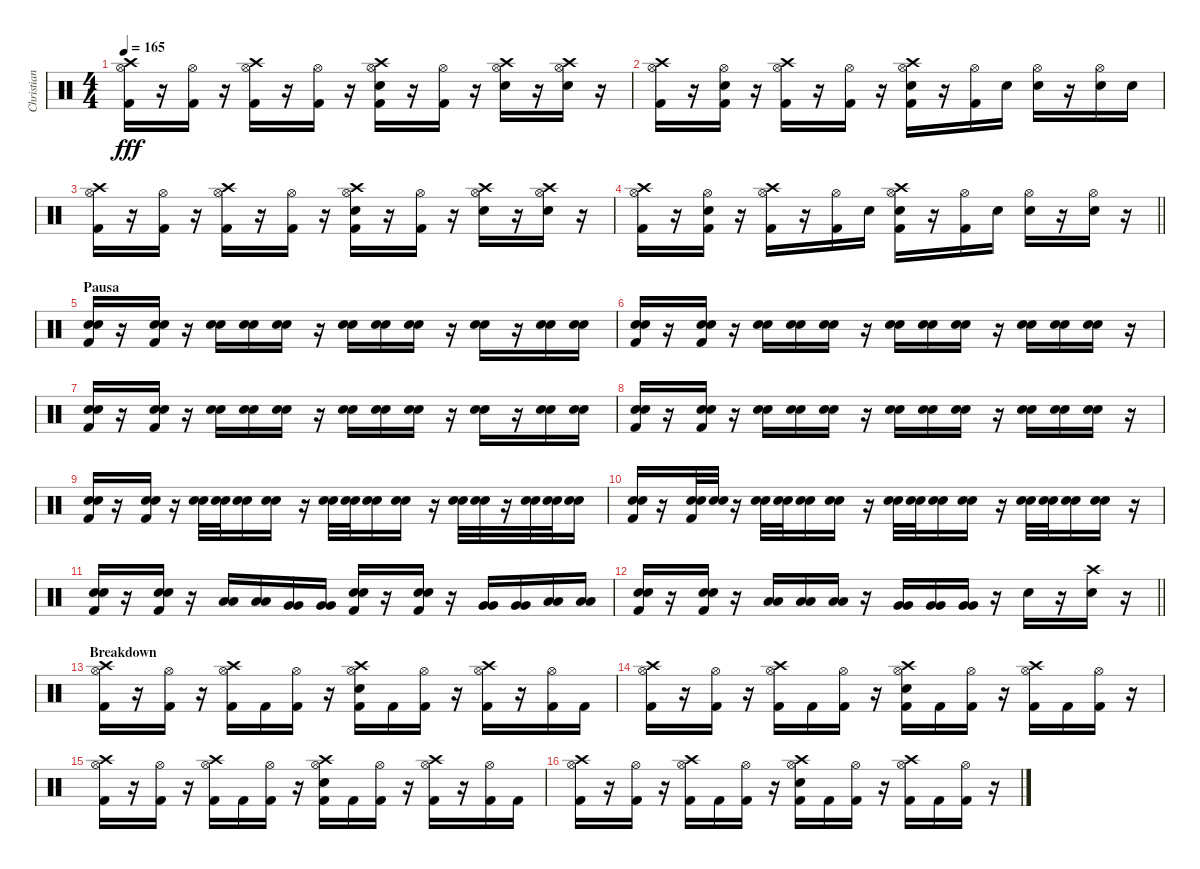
\track ("Christian Coma Mora (CC)" "Christian ") {instrument percussion}
\staff {score}
\articulation defaults
\ts (4 4)
\tempo 165
\clef neutral
\ks c
("Crash high (hit)" "Hi-Hat (open)" "Kick (hit) 2").16{dy fff} r.16 ("Hi-Hat (open)" "Kick (hit) 2").16 r.16 ("Crash high (hit)" "Hi-Hat (open)" "Kick (hit) 2").16 r.16 ("Hi-Hat (open)" "Kick (hit) 2").16 r.16 ("Crash high (hit)" "Hi-Hat (open)" "Snare (hit) 2" "Kick (hit) 2").16 r.16 ("Hi-Hat (open)" "Kick (hit) 2").16 r.16 ("Crash high (hit)" "Hi-Hat (open)" "Snare (hit) 2").16 r.16 ("Crash high (hit)" "Hi-Hat (open)" "Snare (hit) 2").16 r.16 |
("Crash high (hit)" "Hi-Hat (open)" "Kick (hit) 2").16 r.16 ("Hi-Hat (open)" "Snare (hit) 2" "Kick (hit) 2").16 r.16 ("Crash high (hit)" "Hi-Hat (open)" "Kick (hit) 2").16 r.16 ("Hi-Hat (open)" "Kick (hit) 2").16 r.16 ("Crash high (hit)" "Hi-Hat (open)" "Snare (hit) 2" "Kick (hit) 2").16 r.16 ("Hi-Hat (open)" "Kick (hit) 2").16 "Snare (hit) 2".16 ("Hi-Hat (open)" "Snare (hit) 2").16 r.16 ("Hi-Hat (open)" "Snare (hit) 2").16 "Snare (hit) 2".16 |
("Crash high (hit)" "Hi-Hat (open)" "Kick (hit) 2").16 r.16 ("Hi-Hat (open)" "Kick (hit) 2").16 r.16 ("Crash high (hit)" "Hi-Hat (open)" "Kick (hit) 2").16 r.16 ("Hi-Hat (open)" "Kick (hit) 2").16 r.16 ("Crash high (hit)" "Hi-Hat (open)" "Snare (hit) 2" "Kick (hit) 2").16 r.16 ("Hi-Hat (open)" "Kick (hit) 2").16 r.16 ("Crash high (hit)" "Hi-Hat (open)" "Snare (hit) 2").16 r.16 ("Crash high (hit)" "Hi-Hat (open)" "Snare (hit) 2").16 r.16 |
\barLineRight lightlight
("Crash high (hit)" "Hi-Hat (open)" "Kick (hit) 2").16 r.16 ("Hi-Hat (open)" "Snare (hit) 2" "Kick (hit) 2").16 r.16 ("Crash high (hit)" "Hi-Hat (open)" "Kick (hit) 2").16 r.16 ("Hi-Hat (open)" "Kick (hit) 2").16 "Snare (hit) 2".16 ("Crash high (hit)" "Hi-Hat (open)" "Snare (hit) 2" "Kick (hit) 2").16 r.16 ("Hi-Hat (open)" "Kick (hit) 2").16 "Snare (hit) 2".16 ("Hi-Hat (open)" "Snare (hit) 2").16 r.16 ("Hi-Hat (open)" "Snare (hit) 2").16 r.16 |
\section ("" "Pausa")
("Snare (hit) 2" "Electric Snare (hit)" "Kick (hit) 2").16 r.16 ("Snare (hit) 2" "Electric Snare (hit)" "Kick (hit) 2").16 r.16 ("Snare (hit) 2" "Electric Snare (hit)").16 ("Snare (hit) 2" "Electric Snare (hit)").16 ("Snare (hit) 2" "Electric Snare (hit)").16 r.16 ("Snare (hit) 2" "Electric Snare (hit)").16 ("Snare (hit) 2" "Electric Snare (hit)").16 ("Snare (hit) 2" "Electric Snare (hit)").16 r.16 ("Snare (hit) 2" "Electric Snare (hit)").16 r.16 ("Snare (hit) 2" "Electric Snare (hit)").16 ("Snare (hit) 2" "Electric Snare (hit)").16 |
("Snare (hit) 2" "Electric Snare (hit)" "Kick (hit) 2").16 r.16 ("Snare (hit) 2" "Electric Snare (hit)" "Kick (hit) 2").16 r.16 ("Snare (hit) 2" "Electric Snare (hit)").16 ("Snare (hit) 2" "Electric Snare (hit)").16 ("Snare (hit) 2" "Electric Snare (hit)").16 r.16 ("Snare (hit) 2" "Electric Snare (hit)").16 ("Snare (hit) 2" "Electric Snare (hit)").16 ("Snare (hit) 2" "Electric Snare (hit)").16 r.16 ("Snare (hit) 2" "Electric Snare (hit)").16 ("Snare (hit) 2" "Electric Snare (hit)").16 ("Snare (hit) 2" "Electric Snare (hit)").16 r.16 |
("Snare (hit) 2" "Electric Snare (hit)" "Kick (hit) 2").16 r.16 ("Snare (hit) 2" "Electric Snare (hit)" "Kick (hit) 2").16 r.16 ("Snare (hit) 2" "Electric Snare (hit)").16 ("Snare (hit) 2" "Electric Snare (hit)").16 ("Snare (hit) 2" "Electric Snare (hit)").16 r.16 ("Snare (hit) 2" "Electric Snare (hit)").16 ("Snare (hit) 2" "Electric Snare (hit)").16 ("Snare (hit) 2" "Electric Snare (hit)").16 r.16 ("Snare (hit) 2" "Electric Snare (hit)").16 r.16 ("Snare (hit) 2" "Electric Snare (hit)").16 ("Snare (hit) 2" "Electric Snare (hit)").16 |
("Snare (hit) 2" "Electric Snare (hit)" "Kick (hit) 2").16 r.16 ("Snare (hit) 2" "Electric Snare (hit)" "Kick (hit) 2").16 r.16 ("Snare (hit) 2" "Electric Snare (hit)").16 ("Snare (hit) 2" "Electric Snare (hit)").16 ("Snare (hit) 2" "Electric Snare (hit)").16 r.16 ("Snare (hit) 2" "Electric Snare (hit)").16 ("Snare (hit) 2" "Electric Snare (hit)").16 ("Snare (hit) 2" "Electric Snare (hit)").16 r.16 ("Snare (hit) 2" "Electric Snare (hit)").16 ("Snare (hit) 2" "Electric Snare (hit)").16 ("Snare (hit) 2" "Electric Snare (hit)").16 r.16 |
("Snare (hit) 2" "Electric Snare (hit)" "Kick (hit) 2").16 r.16 ("Snare (hit) 2" "Electric Snare (hit)" "Kick (hit) 2").16 r.16 ("Snare (hit) 2" "Electric Snare (hit)").32 ("Snare (hit) 2" "Electric Snare (hit)").32 ("Snare (hit) 2" "Electric Snare (hit)").16 ("Snare (hit) 2" "Electric Snare (hit)").16 r.16 ("Snare (hit) 2" "Electric Snare (hit)").32 ("Snare (hit) 2" "Electric Snare (hit)").32 ("Snare (hit) 2" "Electric Snare (hit)").16 ("Snare (hit) 2" "Electric Snare (hit)").16 r.16 ("Snare (hit) 2" "Electric Snare (hit)").32 ("Snare (hit) 2" "Electric Snare (hit)").32 r.16 ("Snare (hit) 2" "Electric Snare (hit)").32 ("Snare (hit) 2" "Electric Snare (hit)").32 ("Snare (hit) 2" "Electric Snare (hit)").16 |
("Snare (hit) 2" "Electric Snare (hit)" "Kick (hit) 2").16 r.16 ("Snare (hit) 2" "Electric Snare (hit)" "Kick (hit) 2").32 ("Snare (hit) 2" "Electric Snare (hit)").32 r.16 ("Snare (hit) 2" "Electric Snare (hit)").32 ("Snare (hit) 2" "Electric Snare (hit)").32 ("Snare (hit) 2" "Electric Snare (hit)").16 ("Snare (hit) 2" "Electric Snare (hit)").16 r.16 ("Snare (hit) 2" "Electric Snare (hit)").32 ("Snare (hit) 2" "Electric Snare (hit)").32 ("Snare (hit) 2" "Electric Snare (hit)").16 ("Snare (hit) 2" "Electric Snare (hit)").16 r.16 ("Snare (hit) 2" "Electric Snare (hit)").32 ("Snare (hit) 2" "Electric Snare (hit)").32 ("Snare (hit) 2" "Electric Snare (hit)").16 ("Snare (hit) 2" "Electric Snare (hit)").16 r.16 |
("Snare (hit) 2" "Electric Snare (hit)" "Kick (hit) 2").16 r.16 ("Snare (hit) 2" "Electric Snare (hit)" "Kick (hit) 2").16 r.16 ("Low Tom (hit)" "Low Tom (hit)").16 ("Low Tom (hit)" "Low Tom (hit)").16 ("Very Low Tom (hit)" "Very Low Tom (hit)").16 ("Very Low Tom (hit)" "Very Low Tom (hit)").16 ("Snare (hit) 2" "Electric Snare (hit)" "Kick (hit) 2").16 r.16 ("Snare (hit) 2" "Electric Snare (hit)" "Kick (hit) 2").16 r.16 ("Very Low Tom (hit)" "Very Low Tom (hit)").16 ("Very Low Tom (hit)" "Very Low Tom (hit)").16 ("Low Floor Tom (hit)" "Low Floor Tom (hit)").16 ("Low Floor Tom (hit)" "Low Floor Tom (hit)").16 |
\barLineRight lightlight
("Snare (hit) 2" "Electric Snare (hit)" "Kick (hit) 2").16 r.16 ("Snare (hit) 2" "Electric Snare (hit)" "Kick (hit) 2").16 r.16 ("Low Tom (hit)" "Low Tom (hit)").16 ("Low Tom (hit)" "Low Tom (hit)").16 ("Low Tom (hit)" "Low Tom (hit)").16 r.16 ("Very Low Tom (hit)" "Very Low Tom (hit)").16 ("Very Low Tom (hit)" "Very Low Tom (hit)").16 ("Very Low Tom (hit)" "Very Low Tom (hit)").16 r.16 "Snare (hit) 2".16 r.16 ("Crash high (hit)" "Snare (hit) 2").16 r.16 |
\section ("" "Breakdown")
("Crash high (hit)" "Hi-Hat (open)" "Kick (hit) 2").16 r.16 ("Hi-Hat (open)" "Kick (hit) 2").16 r.16 ("Crash high (hit)" "Hi-Hat (open)" "Kick (hit) 2").16 "Kick (hit) 2".16 ("Hi-Hat (open)" "Kick (hit) 2").16 r.16 ("Crash high (hit)" "Hi-Hat (open)" "Snare (hit) 2" "Kick (hit) 2").16 "Kick (hit) 2".16 ("Hi-Hat (open)" "Kick (hit) 2").16 r.16 ("Crash high (hit)" "Hi-Hat (open)" "Kick (hit) 2").16 r.16 ("Hi-Hat (open)" "Kick (hit) 2").16 "Kick (hit) 2".16 |
("Crash high (hit)" "Hi-Hat (open)" "Kick (hit) 2").16 r.16 ("Hi-Hat (open)" "Kick (hit) 2").16 r.16 ("Crash high (hit)" "Hi-Hat (open)" "Kick (hit) 2").16 "Kick (hit) 2".16 ("Hi-Hat (open)" "Kick (hit) 2").16 r.16 ("Crash high (hit)" "Hi-Hat (open)" "Snare (hit) 2" "Kick (hit) 2").16 "Kick (hit) 2".16 ("Hi-Hat (open)" "Kick (hit) 2").16 r.16 ("Crash high (hit)" "Hi-Hat (open)" "Kick (hit) 2").16 "Kick (hit) 2".16 ("Hi-Hat (open)" "Kick (hit) 2").16 r.16 |
("Crash high (hit)" "Hi-Hat (open)" "Kick (hit) 2").16 r.16 ("Hi-Hat (open)" "Kick (hit) 2").16 r.16 ("Crash high (hit)" "Hi-Hat (open)" "Kick (hit) 2").16 "Kick (hit) 2".16 ("Hi-Hat (open)" "Kick (hit) 2").16 r.16 ("Crash high (hit)" "Hi-Hat (open)" "Snare (hit) 2" "Kick (hit) 2").16 "Kick (hit) 2".16 ("Hi-Hat (open)" "Kick (hit) 2").16 r.16 ("Crash high (hit)" "Hi-Hat (open)" "Kick (hit) 2").16 r.16 ("Hi-Hat (open)" "Kick (hit) 2").16 "Kick (hit) 2".16 |
("Crash high (hit)" "Hi-Hat (open)" "Kick (hit) 2").16 r.16 ("Hi-Hat (open)" "Kick (hit) 2").16 r.16 ("Crash high (hit)" "Hi-Hat (open)" "Kick (hit) 2").16 "Kick (hit) 2".16 ("Hi-Hat (open)" "Kick (hit) 2").16 r.16 ("Crash high (hit)" "Hi-Hat (open)" "Snare (hit) 2" "Kick (hit) 2").16 "Kick (hit) 2".16 ("Hi-Hat (open)" "Kick (hit) 2").16 r.16 ("Crash high (hit)" "Hi-Hat (open)" "Kick (hit) 2").16 "Kick (hit) 2".16 ("Hi-Hat (open)" "Kick (hit) 2").16 r.16
